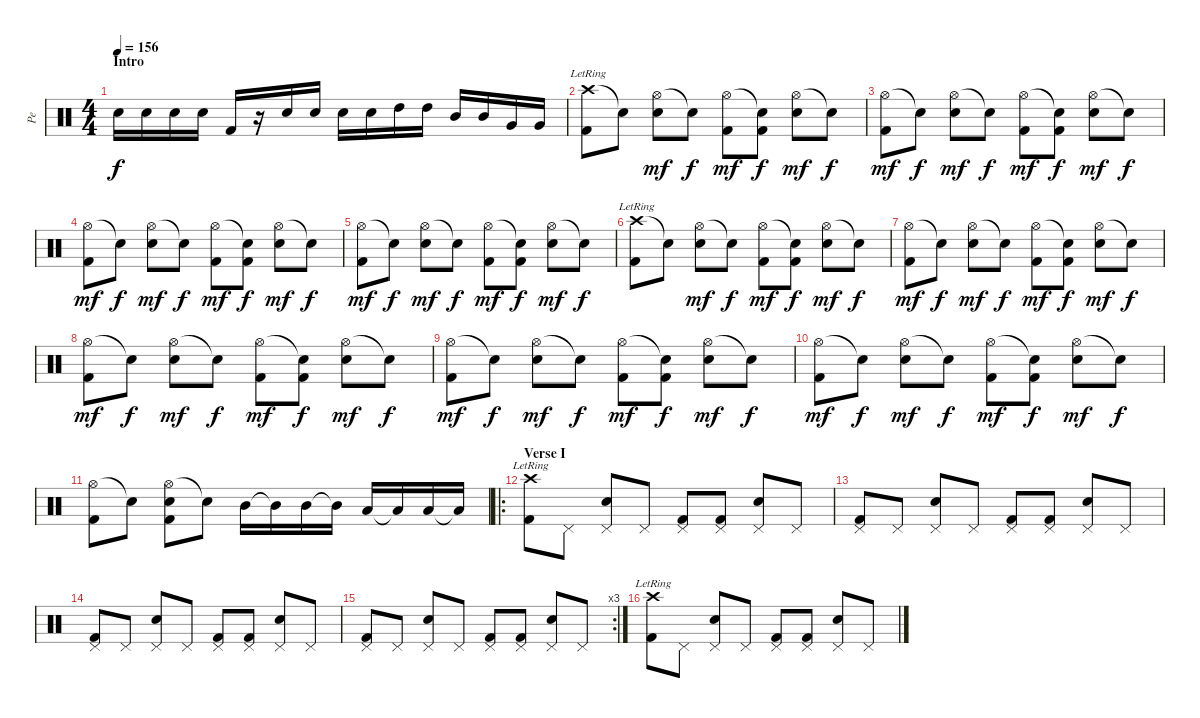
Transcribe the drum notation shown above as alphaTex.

\track ("Pe" "Pe") {instrument percussion}
\staff {score}
\articulation defaults
\ts (4 4)
\section ("" "Intro")
\tempo 156
\clef neutral
\ks c "Electric Snare (hit)".16{dy f} "Electric Snare (hit)".16 "Electric Snare (hit)".16 "Electric Snare (hit)".16 "Kick (hit) 2".16
r.16 "Electric Snare (hit)".16 "Electric Snare (hit)".16 "Electric Snare (hit)".16 "Electric Snare (hit)".16 "High Tom (hit)".16 "High Tom (hit)".16 "Mid Tom (hit)".16 "Mid Tom (hit)".16 "Very Low Tom (hit)".16 "Very Low Tom (hit)".16 |
("Crash high (hit)"{lr} "Kick (hit) 2").8 "Snare (hit)"{t}.8 ("Hi-Hat (open)" "Electric Snare (hit)").8{dy mf} "Snare (hit)"{t}.8{dy f} ("Hi-Hat (open)" "Kick (hit) 2").8{dy mf} ("Snare (hit)"{t} "Kick (hit) 2").8{dy f} ("Hi-Hat (open)" "Electric Snare (hit)").8{dy mf} "Snare (hit)"{t}.8{dy f} |
("Hi-Hat (open)" "Kick (hit) 2").8{dy mf} "Snare (hit)"{t}.8{dy f} ("Hi-Hat (open)" "Electric Snare (hit)").8{dy mf} "Snare (hit)"{t}.8{dy f} ("Hi-Hat (open)" "Kick (hit) 2").8{dy mf} ("Snare (hit)"{t} "Kick (hit) 2").8{dy f} ("Hi-Hat (open)" "Electric Snare (hit)").8{dy mf} "Snare (hit)"{t}.8{dy f} |
("Hi-Hat (open)" "Kick (hit) 2").8{dy mf} "Snare (hit)"{t}.8{dy f} ("Hi-Hat (open)" "Electric Snare (hit)").8{dy mf} "Snare (hit)"{t}.8{dy f} ("Hi-Hat (open)" "Kick (hit) 2").8{dy mf} ("Snare (hit)"{t} "Kick (hit) 2").8{dy f} ("Hi-Hat (open)" "Electric Snare (hit)").8{dy mf} "Snare (hit)"{t}.8{dy f} |
("Hi-Hat (open)" "Kick (hit) 2").8{dy mf} "Snare (hit)"{t}.8{dy f} ("Hi-Hat (open)" "Electric Snare (hit)").8{dy mf} "Snare (hit)"{t}.8{dy f} ("Hi-Hat (open)" "Kick (hit) 2").8{dy mf} ("Snare (hit)"{t} "Kick (hit) 2").8{dy f} ("Hi-Hat (open)" "Electric Snare (hit)").8{dy mf} "Snare (hit)"{t}.8{dy f} |
("Crash high (hit)"{lr} "Kick (hit) 2").8 "Snare (hit)"{t}.8 ("Hi-Hat (open)" "Electric Snare (hit)").8{dy mf} "Snare (hit)"{t}.8{dy f} ("Hi-Hat (open)" "Kick (hit) 2").8{dy mf} ("Snare (hit)"{t} "Kick (hit) 2").8{dy f} ("Hi-Hat (open)" "Electric Snare (hit)").8{dy mf} "Snare (hit)"{t}.8{dy f} |
("Hi-Hat (open)" "Kick (hit) 2").8{dy mf} "Snare (hit)"{t}.8{dy f} ("Hi-Hat (open)" "Electric Snare (hit)").8{dy mf} "Snare (hit)"{t}.8{dy f} ("Hi-Hat (open)" "Kick (hit) 2").8{dy mf} ("Snare (hit)"{t} "Kick (hit) 2").8{dy f} ("Hi-Hat (open)" "Electric Snare (hit)").8{dy mf} "Snare (hit)"{t}.8{dy f} |
("Hi-Hat (open)" "Kick (hit) 2").8{dy mf} "Snare (hit)"{t}.8{dy f} ("Hi-Hat (open)" "Electric Snare (hit)").8{dy mf} "Snare (hit)"{t}.8{dy f} ("Hi-Hat (open)" "Kick (hit) 2").8{dy mf} ("Snare (hit)"{t} "Kick (hit) 2").8{dy f} ("Hi-Hat (open)" "Electric Snare (hit)").8{dy mf} "Snare (hit)"{t}.8{dy f} |
("Hi-Hat (open)" "Kick (hit) 2").8{dy mf} "Snare (hit)"{t}.8{dy f} ("Hi-Hat (open)" "Electric Snare (hit)").8{dy mf} "Snare (hit)"{t}.8{dy f} ("Hi-Hat (open)" "Kick (hit) 2").8{dy mf} ("Snare (hit)"{t} "Kick (hit) 2").8{dy f} ("Hi-Hat (open)" "Electric Snare (hit)").8{dy mf} "Snare (hit)"{t}.8{dy f} |
("Hi-Hat (open)" "Kick (hit) 2").8{dy mf} "Snare (hit)"{t}.8{dy f} ("Hi-Hat (open)" "Electric Snare (hit)").8{dy mf} "Snare (hit)"{t}.8{dy f} ("Hi-Hat (open)" "Kick (hit) 2").8{dy mf} ("Snare (hit)"{t} "Kick (hit) 2").8{dy f} ("Hi-Hat (open)" "Electric Snare (hit)").8{dy mf} "Snare (hit)"{t}.8{dy f} |
("Hi-Hat (open)" "Kick (hit) 2").8 "Snare (hit)"{t}.8 ("Hi-Hat (open)" "Electric Snare (hit)" "Kick (hit) 2").8 "Snare (hit)"{t}.8 "Mid Tom (hit)".16 "Mid Tom (hit)"{t}.16 "Mid Tom (hit)".16 "Mid Tom (hit)"{t}.16 "Low Tom (hit)".16 "Low Tom (hit)"{t}.16 "Low Tom (hit)".16 "Low Tom (hit)"{t}.16 |
\ro
\section ("" "Verse I")
("Crash high (hit)"{lr} "Kick (hit) 2").8 "Pedal Hi-Hat (hit)".8 ("Pedal Hi-Hat (hit)" "Electric Snare (hit)").8 "Pedal Hi-Hat (hit)".8 ("Pedal Hi-Hat (hit)" "Kick (hit) 2").8 ("Pedal Hi-Hat (hit)" "Kick (hit) 2").8 ("Pedal Hi-Hat (hit)" "Electric Snare (hit)").8 "Pedal Hi-Hat (hit)".8 |
("Pedal Hi-Hat (hit)" "Kick (hit) 2").8 "Pedal Hi-Hat (hit)".8 ("Pedal Hi-Hat (hit)" "Electric Snare (hit)").8 "Pedal Hi-Hat (hit)".8 ("Pedal Hi-Hat (hit)" "Kick (hit) 2").8 ("Pedal Hi-Hat (hit)" "Kick (hit) 2").8 ("Pedal Hi-Hat (hit)" "Electric Snare (hit)").8 "Pedal Hi-Hat (hit)".8 |
("Pedal Hi-Hat (hit)" "Kick (hit) 2").8 "Pedal Hi-Hat (hit)".8 ("Pedal Hi-Hat (hit)" "Electric Snare (hit)").8 "Pedal Hi-Hat (hit)".8 ("Pedal Hi-Hat (hit)" "Kick (hit) 2").8 ("Pedal Hi-Hat (hit)" "Kick (hit) 2").8 ("Pedal Hi-Hat (hit)" "Electric Snare (hit)").8 "Pedal Hi-Hat (hit)".8 |
\rc 3
("Pedal Hi-Hat (hit)" "Kick (hit) 2").8 "Pedal Hi-Hat (hit)".8 ("Pedal Hi-Hat (hit)" "Electric Snare (hit)").8 "Pedal Hi-Hat (hit)".8 ("Pedal Hi-Hat (hit)" "Kick (hit) 2").8 ("Pedal Hi-Hat (hit)" "Kick (hit) 2").8 ("Pedal Hi-Hat (hit)" "Electric Snare (hit)").8 "Pedal Hi-Hat (hit)".8 |
("Crash high (hit)"{lr} "Kick (hit) 2").8 "Pedal Hi-Hat (hit)".8 ("Pedal Hi-Hat (hit)" "Electric Snare (hit)").8 "Pedal Hi-Hat (hit)".8 ("Pedal Hi-Hat (hit)" "Kick (hit) 2").8 ("Pedal Hi-Hat (hit)" "Kick (hit) 2").8 ("Pedal Hi-Hat (hit)" "Electric Snare (hit)").8 "Pedal Hi-Hat (hit)".8
